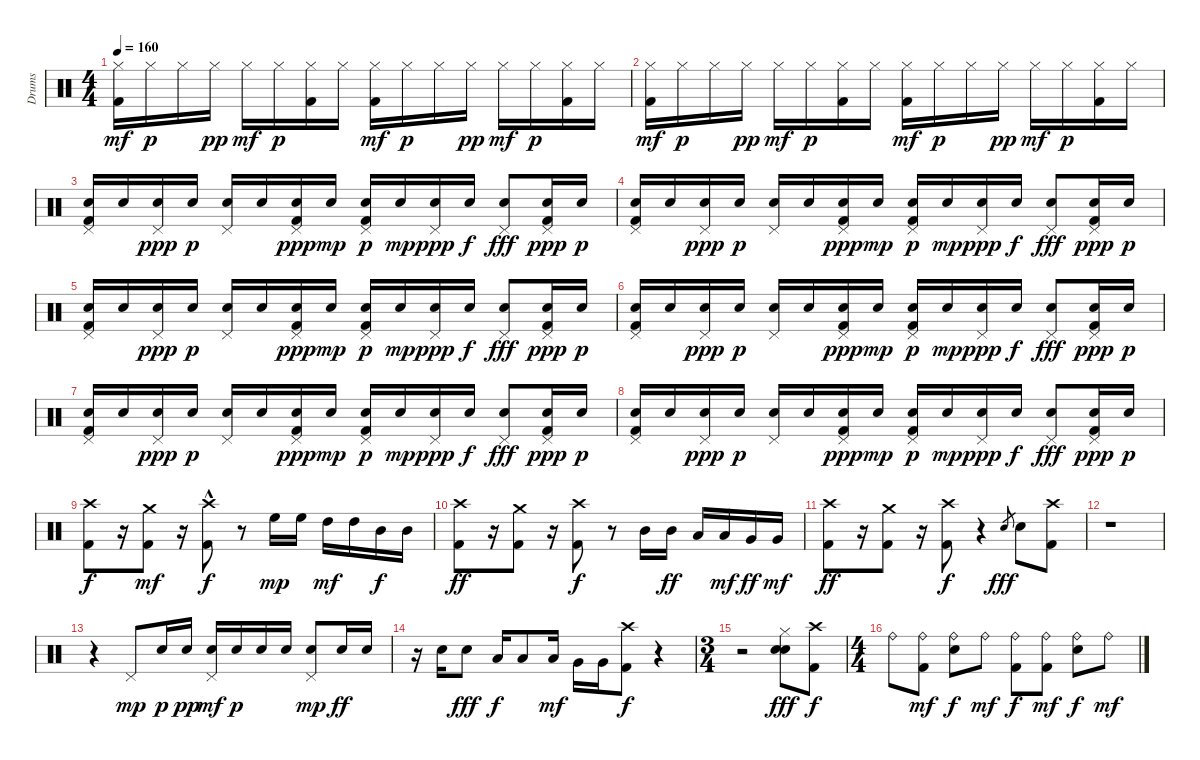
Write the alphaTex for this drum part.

\track ("Drums" "Drums") {instrument percussion}
\staff {score}
\articulation defaults
\ts (4 4)
\tempo 160
\clef neutral
\ks c
("Kick (hit) 2" "Hi-Hat (closed)").16{dy mf} "Hi-Hat (closed)".16{dy p} "Hi-Hat (closed)".16 "Hi-Hat (closed)".16{dy pp} "Hi-Hat (closed)".16{dy mf} "Hi-Hat (closed)".16{dy p} ("Kick (hit) 2" "Hi-Hat (closed)").16 "Hi-Hat (closed)".16 ("Kick (hit) 2" "Hi-Hat (closed)").16{dy mf} "Hi-Hat (closed)".16{dy p} "Hi-Hat (closed)".16 "Hi-Hat (closed)".16{dy pp} "Hi-Hat (closed)".16{dy mf} "Hi-Hat (closed)".16{dy p} ("Kick (hit) 2" "Hi-Hat (closed)").16 "Hi-Hat (closed)".16 |
("Kick (hit) 2" "Hi-Hat (closed)").16{dy mf} "Hi-Hat (closed)".16{dy p} "Hi-Hat (closed)".16 "Hi-Hat (closed)".16{dy pp} "Hi-Hat (closed)".16{dy mf} "Hi-Hat (closed)".16{dy p} ("Kick (hit) 2" "Hi-Hat (closed)").16 "Hi-Hat (closed)".16 ("Kick (hit) 2" "Hi-Hat (closed)").16{dy mf} "Hi-Hat (closed)".16{dy p} "Hi-Hat (closed)".16 "Hi-Hat (closed)".16{dy pp} "Hi-Hat (closed)".16{dy mf} "Hi-Hat (closed)".16{dy p} ("Kick (hit) 2" "Hi-Hat (closed)").16 "Hi-Hat (closed)".16 |
("Kick (hit) 2" "Snare (hit) 2" "Pedal Hi-Hat (hit)").16 "Snare (hit) 2".16 ("Snare (hit) 2" "Pedal Hi-Hat (hit)").16{dy ppp} "Snare (hit) 2".16{dy p} ("Snare (hit) 2" "Pedal Hi-Hat (hit)").16 "Snare (hit) 2".16 ("Kick (hit) 2" "Snare (hit) 2" "Pedal Hi-Hat (hit)").16{dy ppp} "Snare (hit) 2".16{dy mp} ("Kick (hit) 2" "Snare (hit) 2" "Pedal Hi-Hat (hit)").16{dy p} "Snare (hit) 2".16{dy mp} ("Snare (hit) 2" "Pedal Hi-Hat (hit)").16{dy ppp} "Snare (hit) 2".16{dy f} ("Snare (hit) 2" "Pedal Hi-Hat (hit)").8{dy fff} ("Kick (hit) 2" "Snare (hit) 2" "Pedal Hi-Hat (hit)").16{dy ppp} "Snare (hit) 2".16{dy p} |
("Kick (hit) 2" "Snare (hit) 2" "Pedal Hi-Hat (hit)").16 "Snare (hit) 2".16 ("Snare (hit) 2" "Pedal Hi-Hat (hit)").16{dy ppp} "Snare (hit) 2".16{dy p} ("Snare (hit) 2" "Pedal Hi-Hat (hit)").16 "Snare (hit) 2".16 ("Kick (hit) 2" "Snare (hit) 2" "Pedal Hi-Hat (hit)").16{dy ppp} "Snare (hit) 2".16{dy mp} ("Kick (hit) 2" "Snare (hit) 2" "Pedal Hi-Hat (hit)").16{dy p} "Snare (hit) 2".16{dy mp} ("Snare (hit) 2" "Pedal Hi-Hat (hit)").16{dy ppp} "Snare (hit) 2".16{dy f} ("Snare (hit) 2" "Pedal Hi-Hat (hit)").8{dy fff} ("Kick (hit) 2" "Snare (hit) 2" "Pedal Hi-Hat (hit)").16{dy ppp} "Snare (hit) 2".16{dy p} |
("Kick (hit) 2" "Snare (hit) 2" "Pedal Hi-Hat (hit)").16 "Snare (hit) 2".16 ("Snare (hit) 2" "Pedal Hi-Hat (hit)").16{dy ppp} "Snare (hit) 2".16{dy p} ("Snare (hit) 2" "Pedal Hi-Hat (hit)").16 "Snare (hit) 2".16 ("Kick (hit) 2" "Snare (hit) 2" "Pedal Hi-Hat (hit)").16{dy ppp} "Snare (hit) 2".16{dy mp} ("Kick (hit) 2" "Snare (hit) 2" "Pedal Hi-Hat (hit)").16{dy p} "Snare (hit) 2".16{dy mp} ("Snare (hit) 2" "Pedal Hi-Hat (hit)").16{dy ppp} "Snare (hit) 2".16{dy f} ("Snare (hit) 2" "Pedal Hi-Hat (hit)").8{dy fff} ("Kick (hit) 2" "Snare (hit) 2" "Pedal Hi-Hat (hit)").16{dy ppp} "Snare (hit) 2".16{dy p} |
("Kick (hit) 2" "Snare (hit) 2" "Pedal Hi-Hat (hit)").16 "Snare (hit) 2".16 ("Snare (hit) 2" "Pedal Hi-Hat (hit)").16{dy ppp} "Snare (hit) 2".16{dy p} ("Snare (hit) 2" "Pedal Hi-Hat (hit)").16 "Snare (hit) 2".16 ("Kick (hit) 2" "Snare (hit) 2" "Pedal Hi-Hat (hit)").16{dy ppp} "Snare (hit) 2".16{dy mp} ("Kick (hit) 2" "Snare (hit) 2" "Pedal Hi-Hat (hit)").16{dy p} "Snare (hit) 2".16{dy mp} ("Snare (hit) 2" "Pedal Hi-Hat (hit)").16{dy ppp} "Snare (hit) 2".16{dy f} ("Snare (hit) 2" "Pedal Hi-Hat (hit)").8{dy fff} ("Kick (hit) 2" "Snare (hit) 2" "Pedal Hi-Hat (hit)").16{dy ppp} "Snare (hit) 2".16{dy p} |
("Kick (hit) 2" "Snare (hit) 2" "Pedal Hi-Hat (hit)").16 "Snare (hit) 2".16 ("Snare (hit) 2" "Pedal Hi-Hat (hit)").16{dy ppp} "Snare (hit) 2".16{dy p} ("Snare (hit) 2" "Pedal Hi-Hat (hit)").16 "Snare (hit) 2".16 ("Kick (hit) 2" "Snare (hit) 2" "Pedal Hi-Hat (hit)").16{dy ppp} "Snare (hit) 2".16{dy mp} ("Kick (hit) 2" "Snare (hit) 2" "Pedal Hi-Hat (hit)").16{dy p} "Snare (hit) 2".16{dy mp} ("Snare (hit) 2" "Pedal Hi-Hat (hit)").16{dy ppp} "Snare (hit) 2".16{dy f} ("Snare (hit) 2" "Pedal Hi-Hat (hit)").8{dy fff} ("Kick (hit) 2" "Snare (hit) 2" "Pedal Hi-Hat (hit)").16{dy ppp} "Snare (hit) 2".16{dy p} |
("Kick (hit) 2" "Snare (hit) 2" "Pedal Hi-Hat (hit)").16 "Snare (hit) 2".16 ("Snare (hit) 2" "Pedal Hi-Hat (hit)").16{dy ppp} "Snare (hit) 2".16{dy p} ("Snare (hit) 2" "Pedal Hi-Hat (hit)").16 "Snare (hit) 2".16 ("Kick (hit) 2" "Snare (hit) 2" "Pedal Hi-Hat (hit)").16{dy ppp} "Snare (hit) 2".16{dy mp} ("Kick (hit) 2" "Snare (hit) 2" "Pedal Hi-Hat (hit)").16{dy p} "Snare (hit) 2".16{dy mp} ("Snare (hit) 2" "Pedal Hi-Hat (hit)").16{dy ppp} "Snare (hit) 2".16{dy f} ("Snare (hit) 2" "Pedal Hi-Hat (hit)").8{dy fff} ("Kick (hit) 2" "Snare (hit) 2" "Pedal Hi-Hat (hit)").16{dy ppp} "Snare (hit) 2".16{dy p} |
("Kick (hit) 2" "Crash high (hit)").8{dy f} r.16 ("Kick (hit) 2" "Crash medium (hit)").8{dy mf} r.16 ("Kick (hit) 2" "Crash high (hit)"{hac}).8{dy f} r.8 "High Floor Tom (hit)".16{dy mp} "High Floor Tom (hit)".16 "High Tom (hit)".16{dy mf} "High Tom (hit)".16 "Mid Tom (hit)".16{dy f} "Mid Tom (hit)".16 |
("Kick (hit) 2" "Crash high (hit)").8{dy ff} r.16 ("Kick (hit) 2" "Crash medium (hit)").8 r.16 ("Kick (hit) 2" "Crash high (hit)").8{dy f} r.8 "Mid Tom (hit)".16 "Mid Tom (hit)".16{dy ff} "Low Tom (hit)".16 "Low Tom (hit)".16{dy mf} "Very Low Tom (hit)".16{dy ff} "Very Low Tom (hit)".16{dy mf} |
("Kick (hit) 2" "Crash high (hit)").8{dy ff} r.16 ("Kick (hit) 2" "Crash medium (hit)").8 r.16 ("Kick (hit) 2" "Crash high (hit)").8{dy f} r.4 "Snare (hit) 2".8{gr dy fff} "Snare (hit) 2".8 ("Kick (hit) 2" "Crash high (hit)").8 |
r.1 |
r.4 "Pedal Hi-Hat (hit)".8{dy mp} "Snare (hit) 2".16{dy p} "Snare (hit) 2".16{dy pp} ("Snare (hit) 2" "Pedal Hi-Hat (hit)").16{dy mf} "Snare (hit) 2".16{dy p} "Snare (hit) 2".16 "Snare (hit) 2".16 ("Snare (hit) 2" "Pedal Hi-Hat (hit)").8{dy mp} "Snare (hit) 2".16{dy ff} "Snare (hit) 2".16 |
r.16 "Snare (hit) 2".16 "Snare (hit) 2".8{dy fff} "Low Tom (hit)".16{dy f} "Low Tom (hit)".8 "Low Tom (hit)".16{dy mf} "Very Low Tom (hit)".16 "Very Low Tom (hit)".16 ("Kick (hit) 2" "Crash high (hit)").8{dy f} r.4 |
\ts (3 4)
r.2 ("Snare (hit) 2" "Snare (hit) 2" "Hi-Hat (closed)").8{dy fff} ("Kick (hit) 2" "Crash high (hit)").8{dy f} |
\ts (4 4)
"Ride (bell)".8 ("Kick (hit) 2" "Ride (bell)").8{dy mf} ("Snare (hit) 2" "Ride (bell)").8{dy f} "Ride (bell)".8{dy mf} ("Kick (hit) 2" "Ride (bell)").8{dy f} ("Kick (hit) 2" "Ride (bell)").8{dy mf} ("Snare (hit) 2" "Ride (bell)").8{dy f} "Ride (bell)".8{dy mf}
